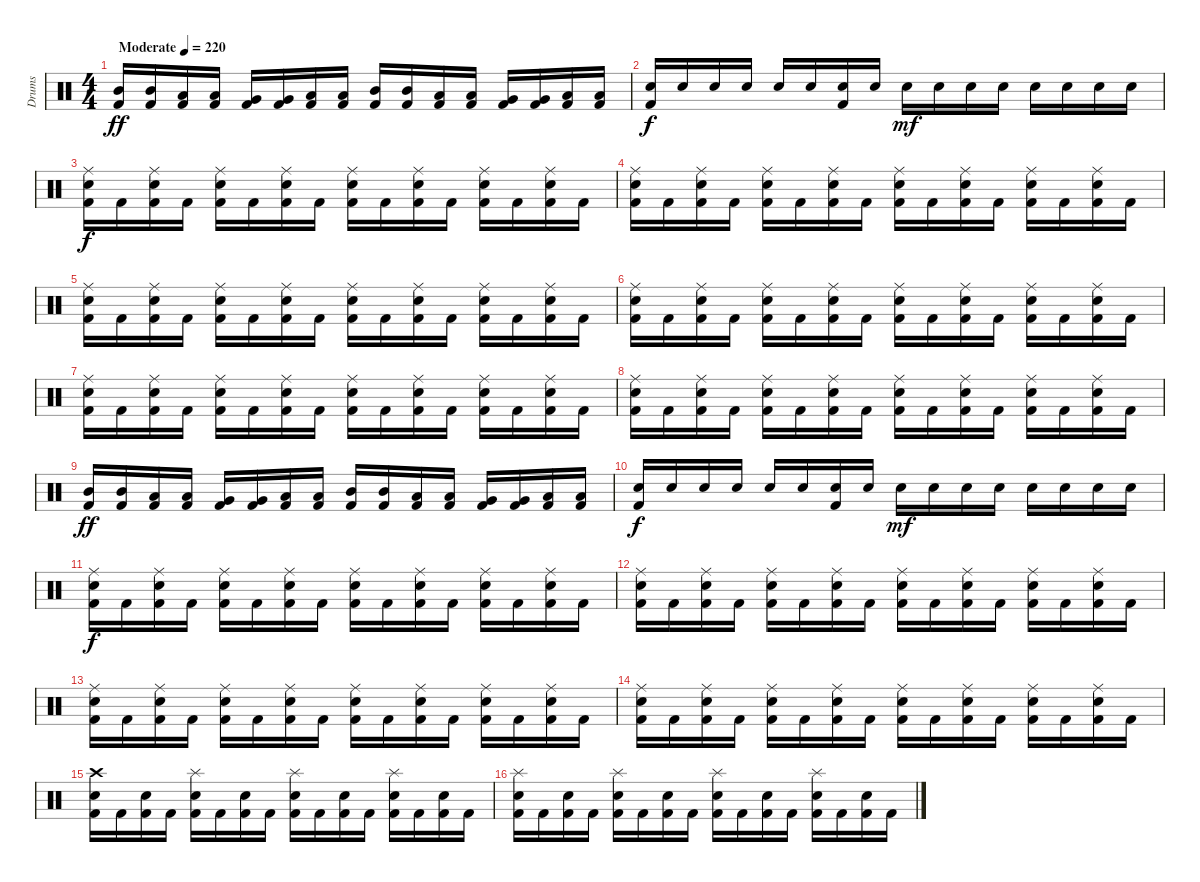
\track ("Drums" "Drums") {instrument percussion}
\staff {score}
\articulation defaults
\ts (4 4)
\tempo (220 "Moderate")
\clef neutral
\ks c
("Kick (hit) 2" "Mid Tom (hit)").16{dy ff} ("Kick (hit) 2" "Mid Tom (hit)").16 ("Kick (hit) 2" "Low Tom (hit)").16 ("Kick (hit) 2" "Low Tom (hit)").16 ("Kick (hit) 2" "Very Low Tom (hit)").16 ("Kick (hit) 2" "Very Low Tom (hit)").16 ("Kick (hit) 2" "Low Floor Tom (hit)").16 ("Kick (hit) 2" "Low Floor Tom (hit)").16 ("Kick (hit) 2" "Mid Tom (hit)").16 ("Kick (hit) 2" "Mid Tom (hit)").16 ("Kick (hit) 2" "Low Tom (hit)").16 ("Kick (hit) 2" "Low Tom (hit)").16 ("Kick (hit) 2" "Very Low Tom (hit)").16 ("Kick (hit) 2" "Very Low Tom (hit)").16 ("Kick (hit) 2" "Low Floor Tom (hit)").16 ("Kick (hit) 2" "Low Floor Tom (hit)").16 |
("Electric Snare (hit)" "Kick (hit) 2").16{dy f} "Electric Snare (hit)".16 "Electric Snare (hit)".16 "Electric Snare (hit)".16 "Electric Snare (hit)".16 "Electric Snare (hit)".16 ("Electric Snare (hit)" "Kick (hit) 2").16 "Electric Snare (hit)".16 "Electric Snare (hit)".16{dy mf} "Electric Snare (hit)".16 "Electric Snare (hit)".16 "Electric Snare (hit)".16 "Electric Snare (hit)".16 "Electric Snare (hit)".16 "Electric Snare (hit)".16 "Electric Snare (hit)".16 |
("Kick (hit) 2" "Electric Snare (hit)" "Ride (middle)").16{dy f} "Kick (hit) 2".16 ("Kick (hit) 2" "Electric Snare (hit)" "Ride (middle)").16 "Kick (hit) 2".16 ("Kick (hit) 2" "Electric Snare (hit)" "Ride (middle)").16 "Kick (hit) 2".16 ("Kick (hit) 2" "Electric Snare (hit)" "Ride (middle)").16 "Kick (hit) 2".16 ("Kick (hit) 2" "Electric Snare (hit)" "Ride (middle)").16 "Kick (hit) 2".16 ("Kick (hit) 2" "Electric Snare (hit)" "Ride (middle)").16 "Kick (hit) 2".16 ("Kick (hit) 2" "Electric Snare (hit)" "Ride (middle)").16 "Kick (hit) 2".16 ("Kick (hit) 2" "Electric Snare (hit)" "Ride (middle)").16 "Kick (hit) 2".16 |
("Kick (hit) 2" "Electric Snare (hit)" "Ride (middle)").16 "Kick (hit) 2".16 ("Kick (hit) 2" "Electric Snare (hit)" "Ride (middle)").16 "Kick (hit) 2".16 ("Kick (hit) 2" "Electric Snare (hit)" "Ride (middle)").16 "Kick (hit) 2".16 ("Kick (hit) 2" "Electric Snare (hit)" "Ride (middle)").16 "Kick (hit) 2".16 ("Kick (hit) 2" "Electric Snare (hit)" "Ride (middle)").16 "Kick (hit) 2".16 ("Kick (hit) 2" "Electric Snare (hit)" "Ride (middle)").16 "Kick (hit) 2".16 ("Kick (hit) 2" "Electric Snare (hit)" "Ride (middle)").16 "Kick (hit) 2".16 ("Kick (hit) 2" "Electric Snare (hit)" "Ride (middle)").16 "Kick (hit) 2".16 |
("Kick (hit) 2" "Electric Snare (hit)" "Ride (middle)").16 "Kick (hit) 2".16 ("Kick (hit) 2" "Electric Snare (hit)" "Ride (middle)").16 "Kick (hit) 2".16 ("Kick (hit) 2" "Electric Snare (hit)" "Ride (middle)").16 "Kick (hit) 2".16 ("Kick (hit) 2" "Electric Snare (hit)" "Ride (middle)").16 "Kick (hit) 2".16 ("Kick (hit) 2" "Electric Snare (hit)" "Ride (middle)").16 "Kick (hit) 2".16 ("Kick (hit) 2" "Electric Snare (hit)" "Ride (middle)").16 "Kick (hit) 2".16 ("Kick (hit) 2" "Electric Snare (hit)" "Ride (middle)").16 "Kick (hit) 2".16 ("Kick (hit) 2" "Electric Snare (hit)" "Ride (middle)").16 "Kick (hit) 2".16 |
("Kick (hit) 2" "Electric Snare (hit)" "Ride (middle)").16 "Kick (hit) 2".16 ("Kick (hit) 2" "Electric Snare (hit)" "Ride (middle)").16 "Kick (hit) 2".16 ("Kick (hit) 2" "Electric Snare (hit)" "Ride (middle)").16 "Kick (hit) 2".16 ("Kick (hit) 2" "Electric Snare (hit)" "Ride (middle)").16 "Kick (hit) 2".16 ("Kick (hit) 2" "Electric Snare (hit)" "Ride (middle)").16 "Kick (hit) 2".16 ("Kick (hit) 2" "Electric Snare (hit)" "Ride (middle)").16 "Kick (hit) 2".16 ("Kick (hit) 2" "Electric Snare (hit)" "Ride (middle)").16 "Kick (hit) 2".16 ("Kick (hit) 2" "Electric Snare (hit)" "Ride (middle)").16 "Kick (hit) 2".16 |
("Kick (hit) 2" "Electric Snare (hit)" "Ride (middle)").16 "Kick (hit) 2".16 ("Kick (hit) 2" "Electric Snare (hit)" "Ride (middle)").16 "Kick (hit) 2".16 ("Kick (hit) 2" "Electric Snare (hit)" "Ride (middle)").16 "Kick (hit) 2".16 ("Kick (hit) 2" "Electric Snare (hit)" "Ride (middle)").16 "Kick (hit) 2".16 ("Kick (hit) 2" "Electric Snare (hit)" "Ride (middle)").16 "Kick (hit) 2".16 ("Kick (hit) 2" "Electric Snare (hit)" "Ride (middle)").16 "Kick (hit) 2".16 ("Kick (hit) 2" "Electric Snare (hit)" "Ride (middle)").16 "Kick (hit) 2".16 ("Kick (hit) 2" "Electric Snare (hit)" "Ride (middle)").16 "Kick (hit) 2".16 |
("Kick (hit) 2" "Electric Snare (hit)" "Ride (middle)").16 "Kick (hit) 2".16 ("Kick (hit) 2" "Electric Snare (hit)" "Ride (middle)").16 "Kick (hit) 2".16 ("Kick (hit) 2" "Electric Snare (hit)" "Ride (middle)").16 "Kick (hit) 2".16 ("Kick (hit) 2" "Electric Snare (hit)" "Ride (middle)").16 "Kick (hit) 2".16 ("Kick (hit) 2" "Electric Snare (hit)" "Ride (middle)").16 "Kick (hit) 2".16 ("Kick (hit) 2" "Electric Snare (hit)" "Ride (middle)").16 "Kick (hit) 2".16 ("Kick (hit) 2" "Electric Snare (hit)" "Ride (middle)").16 "Kick (hit) 2".16 ("Kick (hit) 2" "Electric Snare (hit)" "Ride (middle)").16 "Kick (hit) 2".16 |
("Kick (hit) 2" "Mid Tom (hit)").16{dy ff} ("Kick (hit) 2" "Mid Tom (hit)").16 ("Kick (hit) 2" "Low Tom (hit)").16 ("Kick (hit) 2" "Low Tom (hit)").16 ("Kick (hit) 2" "Very Low Tom (hit)").16 ("Kick (hit) 2" "Very Low Tom (hit)").16 ("Kick (hit) 2" "Low Floor Tom (hit)").16 ("Kick (hit) 2" "Low Floor Tom (hit)").16 ("Kick (hit) 2" "Mid Tom (hit)").16 ("Kick (hit) 2" "Mid Tom (hit)").16 ("Kick (hit) 2" "Low Tom (hit)").16 ("Kick (hit) 2" "Low Tom (hit)").16 ("Kick (hit) 2" "Very Low Tom (hit)").16 ("Kick (hit) 2" "Very Low Tom (hit)").16 ("Kick (hit) 2" "Low Floor Tom (hit)").16 ("Kick (hit) 2" "Low Floor Tom (hit)").16 |
("Electric Snare (hit)" "Kick (hit) 2").16{dy f} "Electric Snare (hit)".16 "Electric Snare (hit)".16 "Electric Snare (hit)".16 "Electric Snare (hit)".16 "Electric Snare (hit)".16 ("Electric Snare (hit)" "Kick (hit) 2").16 "Electric Snare (hit)".16 "Electric Snare (hit)".16{dy mf} "Electric Snare (hit)".16 "Electric Snare (hit)".16 "Electric Snare (hit)".16 "Electric Snare (hit)".16 "Electric Snare (hit)".16 "Electric Snare (hit)".16 "Electric Snare (hit)".16 |
("Kick (hit) 2" "Electric Snare (hit)" "Ride (middle)").16{dy f} "Kick (hit) 2".16 ("Kick (hit) 2" "Electric Snare (hit)" "Ride (middle)").16 "Kick (hit) 2".16 ("Kick (hit) 2" "Electric Snare (hit)" "Ride (middle)").16 "Kick (hit) 2".16 ("Kick (hit) 2" "Electric Snare (hit)" "Ride (middle)").16 "Kick (hit) 2".16 ("Kick (hit) 2" "Electric Snare (hit)" "Ride (middle)").16 "Kick (hit) 2".16 ("Kick (hit) 2" "Electric Snare (hit)" "Ride (middle)").16 "Kick (hit) 2".16 ("Kick (hit) 2" "Electric Snare (hit)" "Ride (middle)").16 "Kick (hit) 2".16 ("Kick (hit) 2" "Electric Snare (hit)" "Ride (middle)").16 "Kick (hit) 2".16 |
("Kick (hit) 2" "Electric Snare (hit)" "Ride (middle)").16 "Kick (hit) 2".16 ("Kick (hit) 2" "Electric Snare (hit)" "Ride (middle)").16 "Kick (hit) 2".16 ("Kick (hit) 2" "Electric Snare (hit)" "Ride (middle)").16 "Kick (hit) 2".16 ("Kick (hit) 2" "Electric Snare (hit)" "Ride (middle)").16 "Kick (hit) 2".16 ("Kick (hit) 2" "Electric Snare (hit)" "Ride (middle)").16 "Kick (hit) 2".16 ("Kick (hit) 2" "Electric Snare (hit)" "Ride (middle)").16 "Kick (hit) 2".16 ("Kick (hit) 2" "Electric Snare (hit)" "Ride (middle)").16 "Kick (hit) 2".16 ("Kick (hit) 2" "Electric Snare (hit)" "Ride (middle)").16 "Kick (hit) 2".16 |
("Kick (hit) 2" "Electric Snare (hit)" "Ride (middle)").16 "Kick (hit) 2".16 ("Kick (hit) 2" "Electric Snare (hit)" "Ride (middle)").16 "Kick (hit) 2".16 ("Kick (hit) 2" "Electric Snare (hit)" "Ride (middle)").16 "Kick (hit) 2".16 ("Kick (hit) 2" "Electric Snare (hit)" "Ride (middle)").16 "Kick (hit) 2".16 ("Kick (hit) 2" "Electric Snare (hit)" "Ride (middle)").16 "Kick (hit) 2".16 ("Kick (hit) 2" "Electric Snare (hit)" "Ride (middle)").16 "Kick (hit) 2".16 ("Kick (hit) 2" "Electric Snare (hit)" "Ride (middle)").16 "Kick (hit) 2".16 ("Kick (hit) 2" "Electric Snare (hit)" "Ride (middle)").16 "Kick (hit) 2".16 |
("Kick (hit) 2" "Electric Snare (hit)" "Ride (middle)").16 "Kick (hit) 2".16 ("Kick (hit) 2" "Electric Snare (hit)" "Ride (middle)").16 "Kick (hit) 2".16 ("Kick (hit) 2" "Electric Snare (hit)" "Ride (middle)").16 "Kick (hit) 2".16 ("Kick (hit) 2" "Electric Snare (hit)" "Ride (middle)").16 "Kick (hit) 2".16 ("Kick (hit) 2" "Electric Snare (hit)" "Ride (middle)").16 "Kick (hit) 2".16 ("Kick (hit) 2" "Electric Snare (hit)" "Ride (middle)").16 "Kick (hit) 2".16 ("Kick (hit) 2" "Electric Snare (hit)" "Ride (middle)").16 "Kick (hit) 2".16 ("Kick (hit) 2" "Electric Snare (hit)" "Ride (middle)").16 "Kick (hit) 2".16 |
("Kick (hit) 2" "Electric Snare (hit)" "Crash high (hit)").16 "Kick (hit) 2".16 ("Kick (hit) 2" "Electric Snare (hit)").16 "Kick (hit) 2".16 ("Kick (hit) 2" "Electric Snare (hit)" "Splash (hit)").16 "Kick (hit) 2".16 ("Kick (hit) 2" "Electric Snare (hit)").16 "Kick (hit) 2".16 ("Kick (hit) 2" "Electric Snare (hit)" "Splash (hit)").16 "Kick (hit) 2".16 ("Kick (hit) 2" "Electric Snare (hit)").16 "Kick (hit) 2".16 ("Kick (hit) 2" "Electric Snare (hit)" "Splash (hit)").16 "Kick (hit) 2".16 ("Kick (hit) 2" "Electric Snare (hit)").16 "Kick (hit) 2".16 |
("Kick (hit) 2" "Electric Snare (hit)" "Splash (hit)").16 "Kick (hit) 2".16 ("Kick (hit) 2" "Electric Snare (hit)").16 "Kick (hit) 2".16 ("Kick (hit) 2" "Electric Snare (hit)" "Splash (hit)").16 "Kick (hit) 2".16 ("Kick (hit) 2" "Electric Snare (hit)").16 "Kick (hit) 2".16 ("Kick (hit) 2" "Electric Snare (hit)" "Splash (hit)").16 "Kick (hit) 2".16 ("Kick (hit) 2" "Electric Snare (hit)").16 "Kick (hit) 2".16 ("Kick (hit) 2" "Electric Snare (hit)" "Splash (hit)").16 "Kick (hit) 2".16 ("Kick (hit) 2" "Electric Snare (hit)").16 "Kick (hit) 2".16
